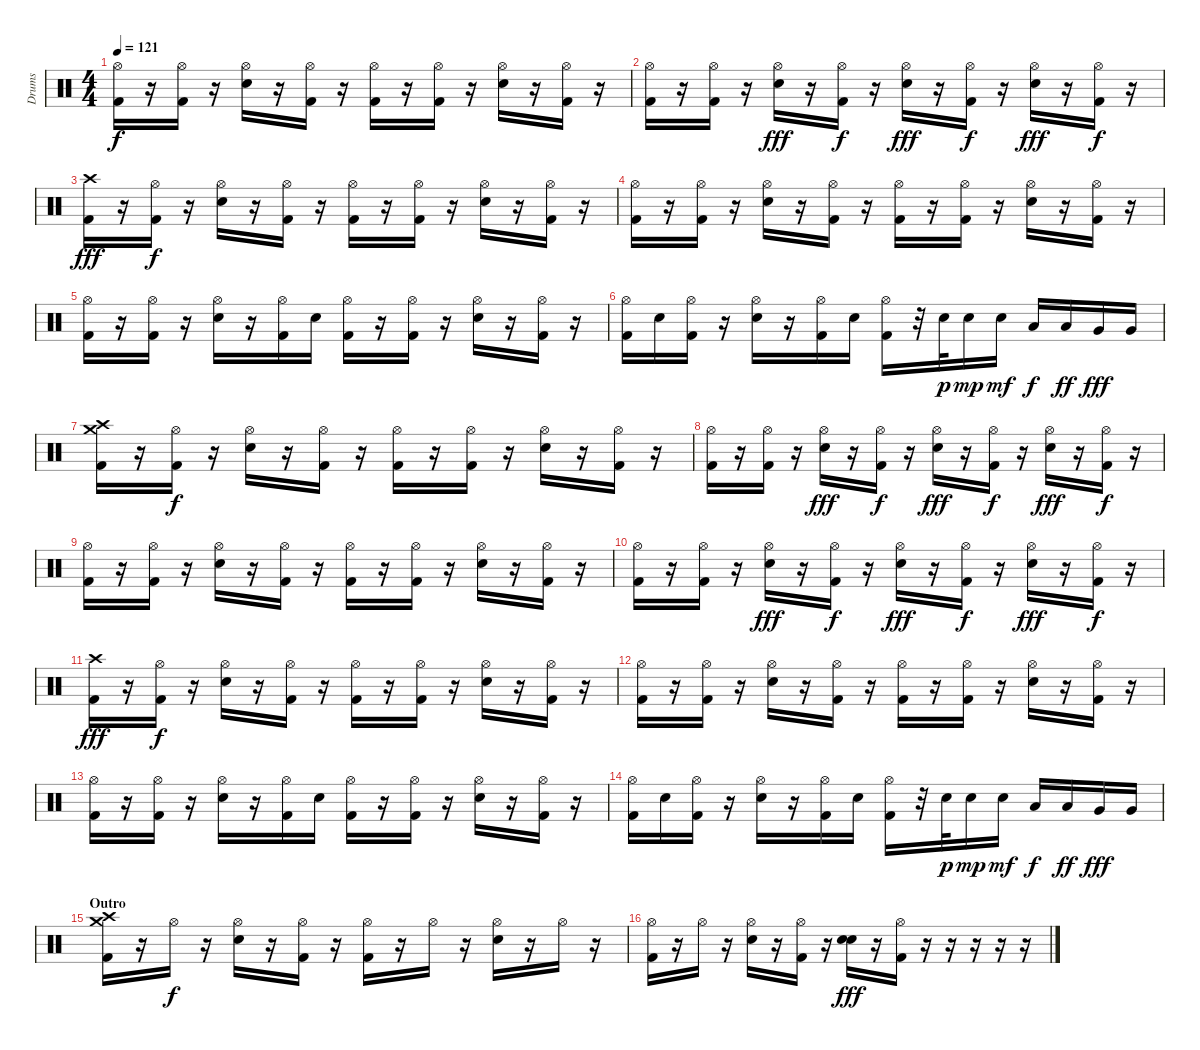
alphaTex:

\track ("Drums" "Drums") {instrument percussion}
\staff {score}
\articulation defaults
\ts (4 4)
\tempo 121
\clef neutral
\ks c
("Hi-Hat (open)" "Kick (hit) 2").16{dy f} r.16 ("Hi-Hat (open)" "Kick (hit) 2").16 r.16 ("Hi-Hat (open)" "Electric Snare (hit)").16 r.16 ("Hi-Hat (open)" "Kick (hit) 2").16 r.16 ("Hi-Hat (open)" "Kick (hit) 2").16 r.16 ("Hi-Hat (open)" "Kick (hit) 2").16 r.16 ("Hi-Hat (open)" "Electric Snare (hit)").16 r.16 ("Hi-Hat (open)" "Kick (hit) 2").16 r.16 |
("Hi-Hat (open)" "Kick (hit) 2").16 r.16 ("Hi-Hat (open)" "Kick (hit) 2").16 r.16 ("Hi-Hat (open)" "Electric Snare (hit)").16{dy fff} r.16 ("Hi-Hat (open)" "Kick (hit) 2").16{dy f} r.16 ("Hi-Hat (open)" "Electric Snare (hit)").16{dy fff} r.16 ("Hi-Hat (open)" "Kick (hit) 2").16{dy f} r.16 ("Hi-Hat (open)" "Electric Snare (hit)").16{dy fff} r.16 ("Hi-Hat (open)" "Kick (hit) 2").16{dy f} r.16 |
("Crash high (hit)" "Kick (hit) 2").16{dy fff} r.16 ("Hi-Hat (open)" "Kick (hit) 2").16{dy f} r.16 ("Hi-Hat (open)" "Electric Snare (hit)").16 r.16 ("Hi-Hat (open)" "Kick (hit) 2").16 r.16 ("Hi-Hat (open)" "Kick (hit) 2").16 r.16 ("Hi-Hat (open)" "Kick (hit) 2").16 r.16 ("Hi-Hat (open)" "Electric Snare (hit)").16 r.16 ("Hi-Hat (open)" "Kick (hit) 2").16 r.16 |
("Hi-Hat (open)" "Kick (hit) 2").16 r.16 ("Hi-Hat (open)" "Kick (hit) 2").16 r.16 ("Hi-Hat (open)" "Electric Snare (hit)").16 r.16 ("Hi-Hat (open)" "Kick (hit) 2").16 r.16 ("Hi-Hat (open)" "Kick (hit) 2").16 r.16 ("Hi-Hat (open)" "Kick (hit) 2").16 r.16 ("Hi-Hat (open)" "Electric Snare (hit)").16 r.16 ("Hi-Hat (open)" "Kick (hit) 2").16 r.16 |
("Hi-Hat (open)" "Kick (hit) 2").16 r.16 ("Hi-Hat (open)" "Kick (hit) 2").16 r.16 ("Hi-Hat (open)" "Electric Snare (hit)").16 r.16 ("Hi-Hat (open)" "Kick (hit) 2").16 "Electric Snare (hit)".16 ("Hi-Hat (open)" "Kick (hit) 2").16 r.16 ("Hi-Hat (open)" "Kick (hit) 2").16 r.16 ("Hi-Hat (open)" "Electric Snare (hit)").16 r.16 ("Hi-Hat (open)" "Kick (hit) 2").16 r.16 |
("Hi-Hat (open)" "Kick (hit) 2").16 "Electric Snare (hit)".16 ("Hi-Hat (open)" "Kick (hit) 2").16 r.16 ("Hi-Hat (open)" "Electric Snare (hit)").16 r.16 ("Hi-Hat (open)" "Kick (hit) 2").16 "Electric Snare (hit)".16 ("Hi-Hat (open)" "Kick (hit) 2").16 r.32 "Electric Snare (hit)".32{dy p} "Electric Snare (hit)".16{dy mp} "Electric Snare (hit)".16{dy mf} "Low Tom (hit)".16{dy f} "Low Tom (hit)".16{dy ff} "Very Low Tom (hit)".16{dy fff} "Very Low Tom (hit)".16 |
("Crash high (hit)" "Crash medium (hit)" "Kick (hit) 2").16 r.16 ("Hi-Hat (open)" "Kick (hit) 2").16{dy f} r.16 ("Hi-Hat (open)" "Electric Snare (hit)").16 r.16 ("Hi-Hat (open)" "Kick (hit) 2").16 r.16 ("Hi-Hat (open)" "Kick (hit) 2").16 r.16 ("Hi-Hat (open)" "Kick (hit) 2").16 r.16 ("Hi-Hat (open)" "Electric Snare (hit)").16 r.16 ("Hi-Hat (open)" "Kick (hit) 2").16 r.16 |
("Hi-Hat (open)" "Kick (hit) 2").16 r.16 ("Hi-Hat (open)" "Kick (hit) 2").16 r.16 ("Hi-Hat (open)" "Electric Snare (hit)").16{dy fff} r.16 ("Hi-Hat (open)" "Kick (hit) 2").16{dy f} r.16 ("Hi-Hat (open)" "Electric Snare (hit)").16{dy fff} r.16 ("Hi-Hat (open)" "Kick (hit) 2").16{dy f} r.16 ("Hi-Hat (open)" "Electric Snare (hit)").16{dy fff} r.16 ("Hi-Hat (open)" "Kick (hit) 2").16{dy f} r.16 |
("Hi-Hat (open)" "Kick (hit) 2").16 r.16 ("Hi-Hat (open)" "Kick (hit) 2").16 r.16 ("Hi-Hat (open)" "Electric Snare (hit)").16 r.16 ("Hi-Hat (open)" "Kick (hit) 2").16 r.16 ("Hi-Hat (open)" "Kick (hit) 2").16 r.16 ("Hi-Hat (open)" "Kick (hit) 2").16 r.16 ("Hi-Hat (open)" "Electric Snare (hit)").16 r.16 ("Hi-Hat (open)" "Kick (hit) 2").16 r.16 |
("Hi-Hat (open)" "Kick (hit) 2").16 r.16 ("Hi-Hat (open)" "Kick (hit) 2").16 r.16 ("Hi-Hat (open)" "Electric Snare (hit)").16{dy fff} r.16 ("Hi-Hat (open)" "Kick (hit) 2").16{dy f} r.16 ("Hi-Hat (open)" "Electric Snare (hit)").16{dy fff} r.16 ("Hi-Hat (open)" "Kick (hit) 2").16{dy f} r.16 ("Hi-Hat (open)" "Electric Snare (hit)").16{dy fff} r.16 ("Hi-Hat (open)" "Kick (hit) 2").16{dy f} r.16 |
("Crash high (hit)" "Kick (hit) 2").16{dy fff} r.16 ("Hi-Hat (open)" "Kick (hit) 2").16{dy f} r.16 ("Hi-Hat (open)" "Electric Snare (hit)").16 r.16 ("Hi-Hat (open)" "Kick (hit) 2").16 r.16 ("Hi-Hat (open)" "Kick (hit) 2").16 r.16 ("Hi-Hat (open)" "Kick (hit) 2").16 r.16 ("Hi-Hat (open)" "Electric Snare (hit)").16 r.16 ("Hi-Hat (open)" "Kick (hit) 2").16 r.16 |
("Hi-Hat (open)" "Kick (hit) 2").16 r.16 ("Hi-Hat (open)" "Kick (hit) 2").16 r.16 ("Hi-Hat (open)" "Electric Snare (hit)").16 r.16 ("Hi-Hat (open)" "Kick (hit) 2").16 r.16 ("Hi-Hat (open)" "Kick (hit) 2").16 r.16 ("Hi-Hat (open)" "Kick (hit) 2").16 r.16 ("Hi-Hat (open)" "Electric Snare (hit)").16 r.16 ("Hi-Hat (open)" "Kick (hit) 2").16 r.16 |
("Hi-Hat (open)" "Kick (hit) 2").16 r.16 ("Hi-Hat (open)" "Kick (hit) 2").16 r.16 ("Hi-Hat (open)" "Electric Snare (hit)").16 r.16 ("Hi-Hat (open)" "Kick (hit) 2").16 "Electric Snare (hit)".16 ("Hi-Hat (open)" "Kick (hit) 2").16 r.16 ("Hi-Hat (open)" "Kick (hit) 2").16 r.16 ("Hi-Hat (open)" "Electric Snare (hit)").16 r.16 ("Hi-Hat (open)" "Kick (hit) 2").16 r.16 |
("Hi-Hat (open)" "Kick (hit) 2").16 "Electric Snare (hit)".16 ("Hi-Hat (open)" "Kick (hit) 2").16 r.16 ("Hi-Hat (open)" "Electric Snare (hit)").16 r.16 ("Hi-Hat (open)" "Kick (hit) 2").16 "Electric Snare (hit)".16 ("Hi-Hat (open)" "Kick (hit) 2").16 r.32 "Electric Snare (hit)".32{dy p} "Electric Snare (hit)".16{dy mp} "Electric Snare (hit)".16{dy mf} "Low Tom (hit)".16{dy f} "Low Tom (hit)".16{dy ff} "Very Low Tom (hit)".16{dy fff} "Very Low Tom (hit)".16 |
\section ("" "Outro")
("Crash high (hit)" "Crash medium (hit)" "Kick (hit) 2").16 r.16 "Hi-Hat (open)".16{dy f} r.16 ("Hi-Hat (open)" "Electric Snare (hit)").16 r.16 ("Hi-Hat (open)" "Kick (hit) 2").16 r.16 ("Hi-Hat (open)" "Kick (hit) 2").16 r.16 "Hi-Hat (open)".16 r.16 ("Hi-Hat (open)" "Electric Snare (hit)").16 r.16 "Hi-Hat (open)".16 r.16 |
("Hi-Hat (open)" "Kick (hit) 2").16 r.16 "Hi-Hat (open)".16 r.16 ("Hi-Hat (open)" "Electric Snare (hit)").16 r.16 ("Hi-Hat (open)" "Kick (hit) 2").16 r.16 ("Electric Snare (hit)" "Electric Snare (hit)").16{dy fff} r.16 ("Hi-Hat (open)" "Kick (hit) 2").16 r.16 r.16 r.16 r.16 r.16
